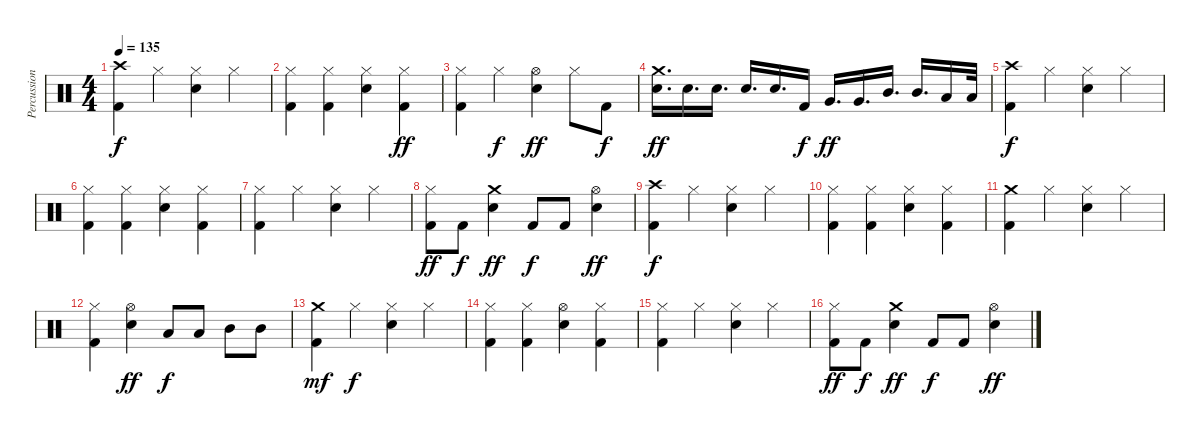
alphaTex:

\track ("Percussion" "Percussion") {instrument percussion}
\staff {score}
\articulation defaults
\ts (4 4)
\tempo 135
\clef neutral
\ks c
("Crash high (hit)" "Kick (hit) 2").4{dy f} "Hi-Hat (closed)".4 ("Hi-Hat (closed)" "Electric Snare (hit)").4 "Hi-Hat (closed)".4 |
("Hi-Hat (closed)" "Kick (hit) 2").4 ("Hi-Hat (closed)" "Kick (hit) 2").4 ("Hi-Hat (closed)" "Electric Snare (hit)").4 ("Hi-Hat (closed)" "Kick (hit) 2").4{dy ff} |
("Hi-Hat (closed)" "Kick (hit) 2").4 "Hi-Hat (closed)".4{dy f} ("Hi-Hat (open)" "Electric Snare (hit)").4{dy ff} "Hi-Hat (closed)".8 "Kick (hit) 2".8{dy f} |
("Crash medium (hit)" "Electric Snare (hit)").16{d dy ff} "Electric Snare (hit)".16{d} "Electric Snare (hit)".16{d} "Electric Snare (hit)".16{d} "Electric Snare (hit)".16{d} "Kick (hit) 2".16{dy f} "Very Low Tom (hit)".16{d dy ff} "Very Low Tom (hit)".16{d} "Mid Tom (hit)".16{d} "Mid Tom (hit)".16{d} "Low Tom (hit)".16 "Low Tom (hit)".32 |
("Crash high (hit)" "Kick (hit) 2").4{dy f} "Hi-Hat (closed)".4 ("Hi-Hat (closed)" "Electric Snare (hit)").4 "Hi-Hat (closed)".4 |
("Hi-Hat (closed)" "Kick (hit) 2").4 ("Hi-Hat (closed)" "Kick (hit) 2").4 ("Hi-Hat (closed)" "Electric Snare (hit)").4 ("Hi-Hat (closed)" "Kick (hit) 2").4 |
("Hi-Hat (closed)" "Kick (hit) 2").4 "Hi-Hat (closed)".4 ("Hi-Hat (closed)" "Electric Snare (hit)").4 "Hi-Hat (closed)".4 |
("Hi-Hat (closed)" "Kick (hit) 2").8{dy ff} "Kick (hit) 2".8{dy f} ("Crash medium (hit)" "Electric Snare (hit)").4{dy ff} "Kick (hit) 2".8{dy f} "Kick (hit) 2".8 ("Hi-Hat (open)" "Electric Snare (hit)").4{dy ff} |
("Crash high (hit)" "Kick (hit) 2").4{dy f} "Hi-Hat (closed)".4 ("Hi-Hat (closed)" "Electric Snare (hit)").4 "Hi-Hat (closed)".4 |
("Hi-Hat (closed)" "Kick (hit) 2").4 ("Hi-Hat (closed)" "Kick (hit) 2").4 ("Hi-Hat (closed)" "Electric Snare (hit)").4 ("Hi-Hat (closed)" "Kick (hit) 2").4 |
("Crash medium (hit)" "Kick (hit) 2").4 "Hi-Hat (closed)".4 ("Hi-Hat (closed)" "Electric Snare (hit)").4 "Hi-Hat (closed)".4 |
("Hi-Hat (closed)" "Kick (hit) 2").4 ("Hi-Hat (open)" "Electric Snare (hit)").4{dy ff} "Low Tom (hit)".8{dy f} "Low Tom (hit)".8 "Mid Tom (hit)".8 "Mid Tom (hit)".8 |
("Crash medium (hit)" "Kick (hit) 2").4{dy mf} "Hi-Hat (closed)".4{dy f} ("Hi-Hat (closed)" "Electric Snare (hit)").4 "Hi-Hat (closed)".4 |
("Hi-Hat (closed)" "Kick (hit) 2").4 ("Hi-Hat (closed)" "Kick (hit) 2").4 ("Hi-Hat (open)" "Electric Snare (hit)").4 ("Hi-Hat (closed)" "Kick (hit) 2").4 |
("Hi-Hat (closed)" "Kick (hit) 2").4 "Hi-Hat (closed)".4 ("Hi-Hat (closed)" "Electric Snare (hit)").4 "Hi-Hat (closed)".4 |
("Hi-Hat (closed)" "Kick (hit) 2").8{dy ff} "Kick (hit) 2".8{dy f} ("Crash medium (hit)" "Electric Snare (hit)").4{dy ff} "Kick (hit) 2".8{dy f} "Kick (hit) 2".8 ("Hi-Hat (open)" "Electric Snare (hit)").4{dy ff}
